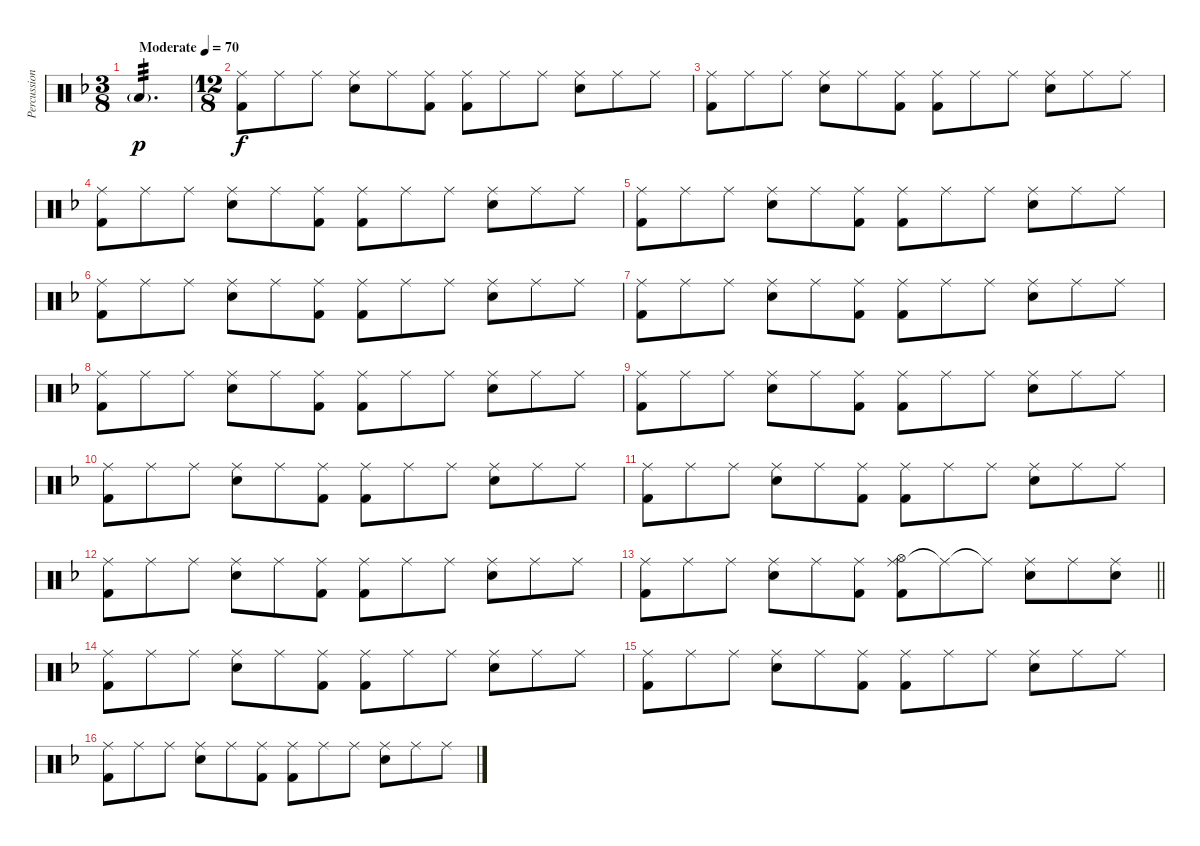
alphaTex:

\track ("Percussion" "Percussion") {instrument percussion}
\staff {score}
\articulation defaults
\ts (3 8)
\tempo (70 "Moderate")
\clef neutral
\ks dminor "Low Floor Tom (hit)"{g}.4{d tp 3 dy p}
|
\ts (12 8)
("Ride (middle)" "Kick (hit) 2").8{dy f} "Ride (middle)".8 "Ride (middle)".8 ("Ride (middle)" "Snare (hit) 2").8 "Ride (middle)".8 ("Ride (middle)" "Kick (hit) 2").8 ("Ride (middle)" "Kick (hit) 2").8 "Ride (middle)".8 "Ride (middle)".8 ("Ride (middle)" "Snare (hit) 2").8 "Ride (middle)".8 "Ride (middle)".8 |
("Ride (middle)" "Kick (hit) 2").8 "Ride (middle)".8 "Ride (middle)".8 ("Ride (middle)" "Snare (hit) 2").8 "Ride (middle)".8 ("Ride (middle)" "Kick (hit) 2").8 ("Ride (middle)" "Kick (hit) 2").8 "Ride (middle)".8 "Ride (middle)".8 ("Ride (middle)" "Snare (hit) 2").8 "Ride (middle)".8 "Ride (middle)".8 |
("Ride (middle)" "Kick (hit) 2").8 "Ride (middle)".8 "Ride (middle)".8 ("Ride (middle)" "Snare (hit) 2").8 "Ride (middle)".8 ("Ride (middle)" "Kick (hit) 2").8 ("Ride (middle)" "Kick (hit) 2").8 "Ride (middle)".8 "Ride (middle)".8 ("Ride (middle)" "Snare (hit) 2").8 "Ride (middle)".8 "Ride (middle)".8 |
("Ride (middle)" "Kick (hit) 2").8 "Ride (middle)".8 "Ride (middle)".8 ("Ride (middle)" "Snare (hit) 2").8 "Ride (middle)".8 ("Ride (middle)" "Kick (hit) 2").8 ("Ride (middle)" "Kick (hit) 2").8 "Ride (middle)".8 "Ride (middle)".8 ("Ride (middle)" "Snare (hit) 2").8 "Ride (middle)".8 "Ride (middle)".8 |
("Ride (middle)" "Kick (hit) 2").8 "Ride (middle)".8 "Ride (middle)".8 ("Ride (middle)" "Snare (hit) 2").8 "Ride (middle)".8 ("Ride (middle)" "Kick (hit) 2").8 ("Ride (middle)" "Kick (hit) 2").8 "Ride (middle)".8 "Ride (middle)".8 ("Ride (middle)" "Snare (hit) 2").8 "Ride (middle)".8 "Ride (middle)".8 |
("Ride (middle)" "Kick (hit) 2").8 "Ride (middle)".8 "Ride (middle)".8 ("Ride (middle)" "Snare (hit) 2").8 "Ride (middle)".8 ("Ride (middle)" "Kick (hit) 2").8 ("Ride (middle)" "Kick (hit) 2").8 "Ride (middle)".8 "Ride (middle)".8 ("Ride (middle)" "Snare (hit) 2").8 "Ride (middle)".8 "Ride (middle)".8 |
("Ride (middle)" "Kick (hit) 2").8 "Ride (middle)".8 "Ride (middle)".8 ("Ride (middle)" "Snare (hit) 2").8 "Ride (middle)".8 ("Ride (middle)" "Kick (hit) 2").8 ("Ride (middle)" "Kick (hit) 2").8 "Ride (middle)".8 "Ride (middle)".8 ("Ride (middle)" "Snare (hit) 2").8 "Ride (middle)".8 "Ride (middle)".8 |
("Ride (middle)" "Kick (hit) 2").8 "Ride (middle)".8 "Ride (middle)".8 ("Ride (middle)" "Snare (hit) 2").8 "Ride (middle)".8 ("Ride (middle)" "Kick (hit) 2").8 ("Ride (middle)" "Kick (hit) 2").8 "Ride (middle)".8 "Ride (middle)".8 ("Ride (middle)" "Snare (hit) 2").8 "Ride (middle)".8 "Ride (middle)".8 |
("Ride (middle)" "Kick (hit) 2").8 "Ride (middle)".8 "Ride (middle)".8 ("Ride (middle)" "Snare (hit) 2").8 "Ride (middle)".8 ("Ride (middle)" "Kick (hit) 2").8 ("Ride (middle)" "Kick (hit) 2").8 "Ride (middle)".8 "Ride (middle)".8 ("Ride (middle)" "Snare (hit) 2").8 "Ride (middle)".8 "Ride (middle)".8 |
("Ride (middle)" "Kick (hit) 2").8 "Ride (middle)".8 "Ride (middle)".8 ("Ride (middle)" "Snare (hit) 2").8 "Ride (middle)".8 ("Ride (middle)" "Kick (hit) 2").8 ("Ride (middle)" "Kick (hit) 2").8 "Ride (middle)".8 "Ride (middle)".8 ("Ride (middle)" "Snare (hit) 2").8 "Ride (middle)".8 "Ride (middle)".8 |
("Ride (middle)" "Kick (hit) 2").8 "Ride (middle)".8 "Ride (middle)".8 ("Ride (middle)" "Snare (hit) 2").8 "Ride (middle)".8 ("Ride (middle)" "Kick (hit) 2").8 ("Ride (middle)" "Kick (hit) 2").8 "Ride (middle)".8 "Ride (middle)".8 ("Ride (middle)" "Snare (hit) 2").8 "Ride (middle)".8 "Ride (middle)".8 |
\barLineRight lightlight
("Ride (middle)" "Kick (hit) 2").8 "Ride (middle)".8 "Ride (middle)".8 ("Ride (middle)" "Snare (hit) 2").8 "Ride (middle)".8 ("Ride (middle)" "Kick (hit) 2").8 ("Ride (middle)" "Hi-Hat (open)" "Kick (hit) 2").8 "Ride (middle)"{t}.8 "Ride (middle)"{t}.8 ("Ride (middle)" "Snare (hit) 2").8 "Ride (middle)".8 ("Ride (middle)" "Snare (hit) 2").8 |
("Ride (middle)" "Kick (hit) 2").8 "Ride (middle)".8 "Ride (middle)".8 ("Ride (middle)" "Snare (hit) 2").8 "Ride (middle)".8 ("Ride (middle)" "Kick (hit) 2").8 ("Ride (middle)" "Kick (hit) 2").8 "Ride (middle)".8 "Ride (middle)".8 ("Ride (middle)" "Snare (hit) 2").8 "Ride (middle)".8 "Ride (middle)".8 |
("Ride (middle)" "Kick (hit) 2").8 "Ride (middle)".8 "Ride (middle)".8 ("Ride (middle)" "Snare (hit) 2").8 "Ride (middle)".8 ("Ride (middle)" "Kick (hit) 2").8 ("Ride (middle)" "Kick (hit) 2").8 "Ride (middle)".8 "Ride (middle)".8 ("Ride (middle)" "Snare (hit) 2").8 "Ride (middle)".8 "Ride (middle)".8 |
("Ride (middle)" "Kick (hit) 2").8 "Ride (middle)".8 "Ride (middle)".8 ("Ride (middle)" "Snare (hit) 2").8 "Ride (middle)".8 ("Ride (middle)" "Kick (hit) 2").8 ("Ride (middle)" "Kick (hit) 2").8 "Ride (middle)".8 "Ride (middle)".8 ("Ride (middle)" "Snare (hit) 2").8 "Ride (middle)".8 "Ride (middle)".8
